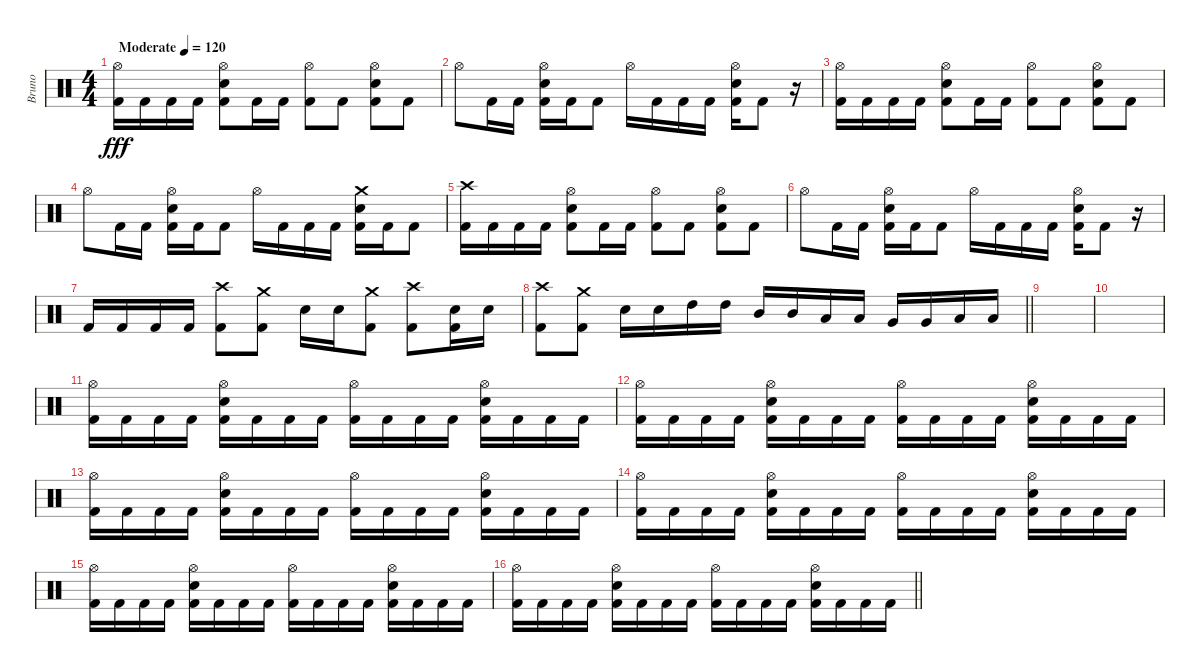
\track ("Bruno" "Bruno") {instrument percussion}
\staff {score}
\articulation defaults
\ts (4 4)
\tempo (120 "Moderate")
\clef neutral
\ks c
("Hi-Hat (open)" "Kick (hit) 2").16{dy fff} "Kick (hit) 2".16 "Kick (hit) 2".16 "Kick (hit) 2".16 ("Hi-Hat (open)" "Snare (hit) 2" "Kick (hit) 2").8 "Kick (hit) 2".16 "Kick (hit) 2".16 ("Hi-Hat (open)" "Kick (hit) 2").8 "Kick (hit) 2".8 ("Hi-Hat (open)" "Snare (hit) 2" "Kick (hit) 2").8 "Kick (hit) 2".8 |
"Hi-Hat (open)".8 "Kick (hit) 2".16 "Kick (hit) 2".16 ("Hi-Hat (open)" "Snare (hit) 2" "Kick (hit) 2").16 "Kick (hit) 2".16 "Kick (hit) 2".8 "Hi-Hat (open)".16 "Kick (hit) 2".16 "Kick (hit) 2".16 "Kick (hit) 2".16 ("Hi-Hat (open)" "Snare (hit) 2" "Kick (hit) 2").16 "Kick (hit) 2".8 r.16 |
("Hi-Hat (open)" "Kick (hit) 2").16 "Kick (hit) 2".16 "Kick (hit) 2".16 "Kick (hit) 2".16 ("Hi-Hat (open)" "Snare (hit) 2" "Kick (hit) 2").8 "Kick (hit) 2".16 "Kick (hit) 2".16 ("Hi-Hat (open)" "Kick (hit) 2").8 "Kick (hit) 2".8 ("Hi-Hat (open)" "Snare (hit) 2" "Kick (hit) 2").8 "Kick (hit) 2".8 |
"Hi-Hat (open)".8 "Kick (hit) 2".16 "Kick (hit) 2".16 ("Hi-Hat (open)" "Snare (hit) 2" "Kick (hit) 2").16 "Kick (hit) 2".16 "Kick (hit) 2".8 "Hi-Hat (open)".16 "Kick (hit) 2".16 "Kick (hit) 2".16 "Kick (hit) 2".16 ("Crash medium (hit)" "Snare (hit) 2" "Kick (hit) 2").16 "Kick (hit) 2".16 "Kick (hit) 2".8 |
("Crash high (hit)" "Kick (hit) 2").16 "Kick (hit) 2".16 "Kick (hit) 2".16 "Kick (hit) 2".16 ("Hi-Hat (open)" "Snare (hit) 2" "Kick (hit) 2").8 "Kick (hit) 2".16 "Kick (hit) 2".16 ("Hi-Hat (open)" "Kick (hit) 2").8 "Kick (hit) 2".8 ("Hi-Hat (open)" "Snare (hit) 2" "Kick (hit) 2").8 "Kick (hit) 2".8 |
"Hi-Hat (open)".8 "Kick (hit) 2".16 "Kick (hit) 2".16 ("Hi-Hat (open)" "Snare (hit) 2" "Kick (hit) 2").16 "Kick (hit) 2".16 "Kick (hit) 2".8 "Hi-Hat (open)".16 "Kick (hit) 2".16 "Kick (hit) 2".16 "Kick (hit) 2".16 ("Hi-Hat (open)" "Snare (hit) 2" "Kick (hit) 2").16 "Kick (hit) 2".8 r.16 |
"Kick (hit) 2".16 "Kick (hit) 2".16 "Kick (hit) 2".16 "Kick (hit) 2".16 ("Crash high (hit)" "Kick (hit) 2").8 ("Crash medium (hit)" "Kick (hit) 2").8 "Snare (hit) 2".16 "Snare (hit) 2".16 ("Crash medium (hit)" "Kick (hit) 2").8 ("Crash high (hit)" "Kick (hit) 2").8 ("Kick (hit) 2" "Snare (hit) 2").16 "Snare (hit) 2".16 |
\barLineRight lightlight
("Crash high (hit)" "Kick (hit) 2").8 ("Crash medium (hit)" "Kick (hit) 2").8 "Snare (hit) 2".16 "Snare (hit) 2".16 "High Tom (hit)".16 "High Tom (hit)".16 "Mid Tom (hit)".16 "Mid Tom (hit)".16 "Low Tom (hit)".16 "Low Tom (hit)".16 "Very Low Tom (hit)".16 "Very Low Tom (hit)".16 "Low Floor Tom (hit)".16 "Low Floor Tom (hit)".16 |
|
|
("Hi-Hat (open)" "Kick (hit) 2").16 "Kick (hit) 2".16 "Kick (hit) 2".16 "Kick (hit) 2".16 ("Hi-Hat (open)" "Snare (hit) 2" "Kick (hit) 2").16 "Kick (hit) 2".16 "Kick (hit) 2".16 "Kick (hit) 2".16 ("Hi-Hat (open)" "Kick (hit) 2").16 "Kick (hit) 2".16 "Kick (hit) 2".16 "Kick (hit) 2".16 ("Hi-Hat (open)" "Snare (hit) 2" "Kick (hit) 2").16 "Kick (hit) 2".16 "Kick (hit) 2".16 "Kick (hit) 2".16 |
("Hi-Hat (open)" "Kick (hit) 2").16 "Kick (hit) 2".16 "Kick (hit) 2".16 "Kick (hit) 2".16 ("Hi-Hat (open)" "Snare (hit) 2" "Kick (hit) 2").16 "Kick (hit) 2".16 "Kick (hit) 2".16 "Kick (hit) 2".16 ("Hi-Hat (open)" "Kick (hit) 2").16 "Kick (hit) 2".16 "Kick (hit) 2".16 "Kick (hit) 2".16 ("Hi-Hat (open)" "Snare (hit) 2" "Kick (hit) 2").16 "Kick (hit) 2".16 "Kick (hit) 2".16 "Kick (hit) 2".16 |
("Hi-Hat (open)" "Kick (hit) 2").16 "Kick (hit) 2".16 "Kick (hit) 2".16 "Kick (hit) 2".16 ("Hi-Hat (open)" "Snare (hit) 2" "Kick (hit) 2").16 "Kick (hit) 2".16 "Kick (hit) 2".16 "Kick (hit) 2".16 ("Hi-Hat (open)" "Kick (hit) 2").16 "Kick (hit) 2".16 "Kick (hit) 2".16 "Kick (hit) 2".16 ("Hi-Hat (open)" "Snare (hit) 2" "Kick (hit) 2").16 "Kick (hit) 2".16 "Kick (hit) 2".16 "Kick (hit) 2".16 |
("Hi-Hat (open)" "Kick (hit) 2").16 "Kick (hit) 2".16 "Kick (hit) 2".16 "Kick (hit) 2".16 ("Hi-Hat (open)" "Snare (hit) 2" "Kick (hit) 2").16 "Kick (hit) 2".16 "Kick (hit) 2".16 "Kick (hit) 2".16 ("Hi-Hat (open)" "Kick (hit) 2").16 "Kick (hit) 2".16 "Kick (hit) 2".16 "Kick (hit) 2".16 ("Hi-Hat (open)" "Snare (hit) 2" "Kick (hit) 2").16 "Kick (hit) 2".16 "Kick (hit) 2".16 "Kick (hit) 2".16 |
("Hi-Hat (open)" "Kick (hit) 2").16 "Kick (hit) 2".16 "Kick (hit) 2".16 "Kick (hit) 2".16 ("Hi-Hat (open)" "Snare (hit) 2" "Kick (hit) 2").16 "Kick (hit) 2".16 "Kick (hit) 2".16 "Kick (hit) 2".16 ("Hi-Hat (open)" "Kick (hit) 2").16 "Kick (hit) 2".16 "Kick (hit) 2".16 "Kick (hit) 2".16 ("Hi-Hat (open)" "Snare (hit) 2" "Kick (hit) 2").16 "Kick (hit) 2".16 "Kick (hit) 2".16 "Kick (hit) 2".16 |
\barLineRight lightlight
("Hi-Hat (open)" "Kick (hit) 2").16 "Kick (hit) 2".16 "Kick (hit) 2".16 "Kick (hit) 2".16 ("Hi-Hat (open)" "Snare (hit) 2" "Kick (hit) 2").16 "Kick (hit) 2".16 "Kick (hit) 2".16 "Kick (hit) 2".16 ("Hi-Hat (open)" "Kick (hit) 2").16 "Kick (hit) 2".16 "Kick (hit) 2".16 "Kick (hit) 2".16 ("Hi-Hat (open)" "Snare (hit) 2" "Kick (hit) 2").16 "Kick (hit) 2".16 "Kick (hit) 2".16 "Kick (hit) 2".16
